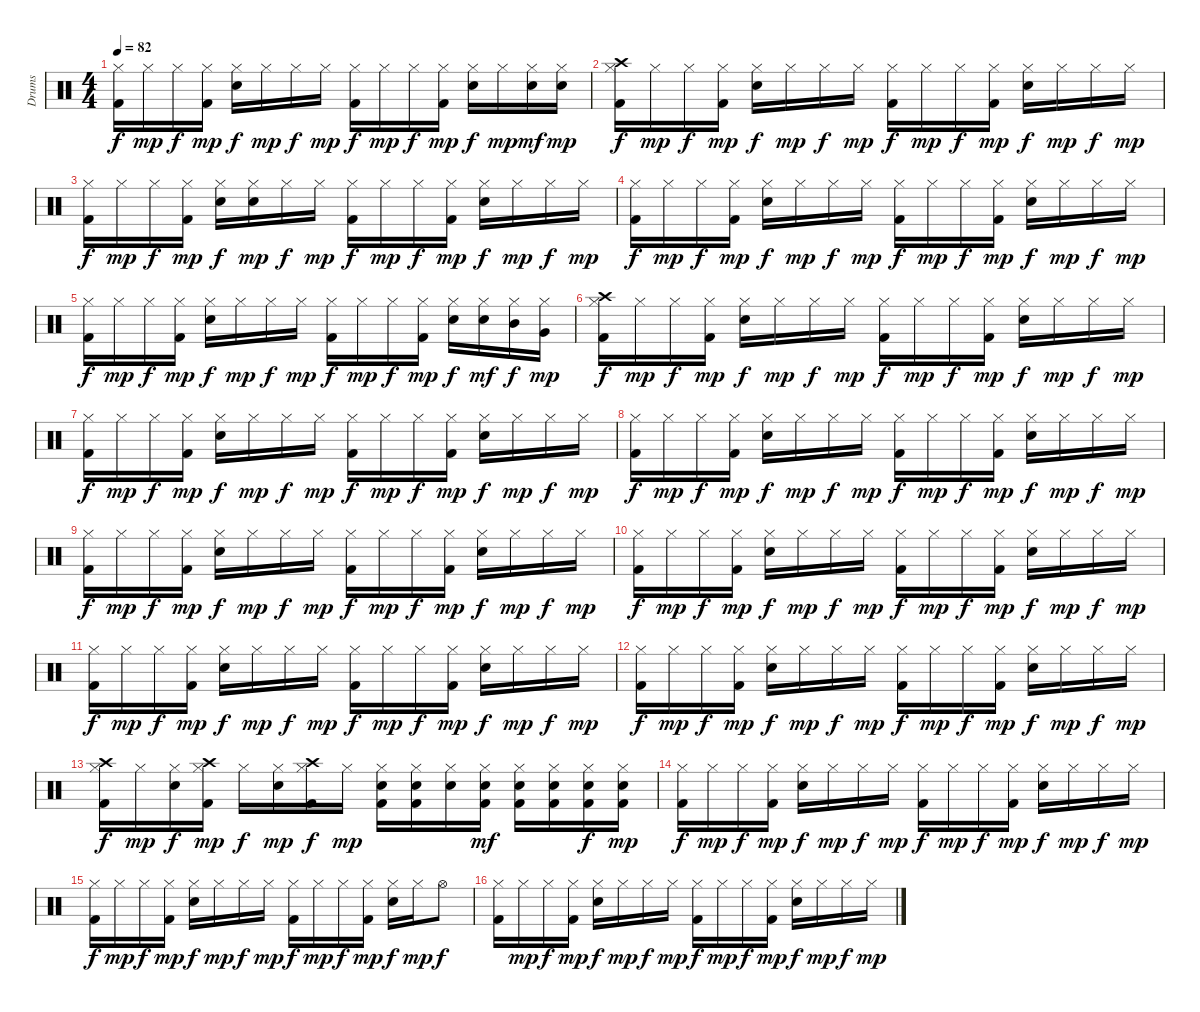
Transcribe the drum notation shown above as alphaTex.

\track ("Drums" "Drums") {instrument percussion}
\staff {score}
\articulation defaults
\ts (4 4)
\tempo 82
\clef neutral
\ks c
("Hi-Hat (closed)" "Kick (hit) 2").16{dy f} "Hi-Hat (closed)".16{dy mp} "Hi-Hat (closed)".16{dy f} ("Hi-Hat (closed)" "Kick (hit) 2").16{dy mp} ("Hi-Hat (closed)" "Snare (hit) 2").16{dy f} "Hi-Hat (closed)".16{dy mp} "Hi-Hat (closed)".16{dy f} "Hi-Hat (closed)".16{dy mp} ("Hi-Hat (closed)" "Kick (hit) 2").16{dy f} "Hi-Hat (closed)".16{dy mp} "Hi-Hat (closed)".16{dy f} ("Hi-Hat (closed)" "Kick (hit) 2").16{dy mp} ("Hi-Hat (closed)" "Snare (hit) 2").16{dy f} "Hi-Hat (closed)".16{dy mp} ("Hi-Hat (closed)" "Snare (hit) 2").16{dy mf} ("Hi-Hat (closed)" "Snare (hit) 2").16{dy mp} |
("Hi-Hat (closed)" "Crash high (hit)" "Kick (hit) 2").16{dy f} "Hi-Hat (closed)".16{dy mp} "Hi-Hat (closed)".16{dy f} ("Hi-Hat (closed)" "Kick (hit) 2").16{dy mp} ("Hi-Hat (closed)" "Snare (hit) 2").16{dy f} "Hi-Hat (closed)".16{dy mp} "Hi-Hat (closed)".16{dy f} "Hi-Hat (closed)".16{dy mp} ("Hi-Hat (closed)" "Kick (hit) 2").16{dy f} "Hi-Hat (closed)".16{dy mp} "Hi-Hat (closed)".16{dy f} ("Hi-Hat (closed)" "Kick (hit) 2").16{dy mp} ("Hi-Hat (closed)" "Snare (hit) 2").16{dy f} "Hi-Hat (closed)".16{dy mp} "Hi-Hat (closed)".16{dy f} "Hi-Hat (closed)".16{dy mp} |
("Hi-Hat (closed)" "Kick (hit) 2").16{dy f} "Hi-Hat (closed)".16{dy mp} "Hi-Hat (closed)".16{dy f} ("Hi-Hat (closed)" "Kick (hit) 2").16{dy mp} ("Hi-Hat (closed)" "Snare (hit) 2").16{dy f} ("Hi-Hat (closed)" "Snare (hit) 2").16{dy mp} "Hi-Hat (closed)".16{dy f} "Hi-Hat (closed)".16{dy mp} ("Hi-Hat (closed)" "Kick (hit) 2").16{dy f} "Hi-Hat (closed)".16{dy mp} "Hi-Hat (closed)".16{dy f} ("Hi-Hat (closed)" "Kick (hit) 2").16{dy mp} ("Hi-Hat (closed)" "Snare (hit) 2").16{dy f} "Hi-Hat (closed)".16{dy mp} "Hi-Hat (closed)".16{dy f} "Hi-Hat (closed)".16{dy mp} |
("Hi-Hat (closed)" "Kick (hit) 2").16{dy f} "Hi-Hat (closed)".16{dy mp} "Hi-Hat (closed)".16{dy f} ("Hi-Hat (closed)" "Kick (hit) 2").16{dy mp} ("Hi-Hat (closed)" "Snare (hit) 2").16{dy f} "Hi-Hat (closed)".16{dy mp} "Hi-Hat (closed)".16{dy f} "Hi-Hat (closed)".16{dy mp} ("Hi-Hat (closed)" "Kick (hit) 2").16{dy f} "Hi-Hat (closed)".16{dy mp} "Hi-Hat (closed)".16{dy f} ("Hi-Hat (closed)" "Kick (hit) 2").16{dy mp} ("Hi-Hat (closed)" "Snare (hit) 2").16{dy f} "Hi-Hat (closed)".16{dy mp} "Hi-Hat (closed)".16{dy f} "Hi-Hat (closed)".16{dy mp} |
("Hi-Hat (closed)" "Kick (hit) 2").16{dy f} "Hi-Hat (closed)".16{dy mp} "Hi-Hat (closed)".16{dy f} ("Hi-Hat (closed)" "Kick (hit) 2").16{dy mp} ("Hi-Hat (closed)" "Snare (hit) 2").16{dy f} "Hi-Hat (closed)".16{dy mp} "Hi-Hat (closed)".16{dy f} "Hi-Hat (closed)".16{dy mp} ("Hi-Hat (closed)" "Kick (hit) 2").16{dy f} "Hi-Hat (closed)".16{dy mp} "Hi-Hat (closed)".16{dy f} ("Hi-Hat (closed)" "Kick (hit) 2").16{dy mp} ("Hi-Hat (closed)" "Snare (hit) 2").16{dy f} ("Hi-Hat (closed)" "Snare (hit) 2").16{dy mf} ("Hi-Hat (closed)" "Mid Tom (hit)").16{dy f} ("Hi-Hat (closed)" "Very Low Tom (hit)").16{dy mp} |
("Hi-Hat (closed)" "Crash high (hit)" "Kick (hit) 2").16{dy f} "Hi-Hat (closed)".16{dy mp} "Hi-Hat (closed)".16{dy f} ("Hi-Hat (closed)" "Kick (hit) 2").16{dy mp} ("Hi-Hat (closed)" "Snare (hit) 2").16{dy f} "Hi-Hat (closed)".16{dy mp} "Hi-Hat (closed)".16{dy f} "Hi-Hat (closed)".16{dy mp} ("Hi-Hat (closed)" "Kick (hit) 2").16{dy f} "Hi-Hat (closed)".16{dy mp} "Hi-Hat (closed)".16{dy f} ("Hi-Hat (closed)" "Kick (hit) 2").16{dy mp} ("Hi-Hat (closed)" "Snare (hit) 2").16{dy f} "Hi-Hat (closed)".16{dy mp} "Hi-Hat (closed)".16{dy f} "Hi-Hat (closed)".16{dy mp} |
("Hi-Hat (closed)" "Kick (hit) 2").16{dy f} "Hi-Hat (closed)".16{dy mp} "Hi-Hat (closed)".16{dy f} ("Hi-Hat (closed)" "Kick (hit) 2").16{dy mp} ("Hi-Hat (closed)" "Snare (hit) 2").16{dy f} "Hi-Hat (closed)".16{dy mp} "Hi-Hat (closed)".16{dy f} "Hi-Hat (closed)".16{dy mp} ("Hi-Hat (closed)" "Kick (hit) 2").16{dy f} "Hi-Hat (closed)".16{dy mp} "Hi-Hat (closed)".16{dy f} ("Hi-Hat (closed)" "Kick (hit) 2").16{dy mp} ("Hi-Hat (closed)" "Snare (hit) 2").16{dy f} "Hi-Hat (closed)".16{dy mp} "Hi-Hat (closed)".16{dy f} "Hi-Hat (closed)".16{dy mp} |
("Hi-Hat (closed)" "Kick (hit) 2").16{dy f} "Hi-Hat (closed)".16{dy mp} "Hi-Hat (closed)".16{dy f} ("Hi-Hat (closed)" "Kick (hit) 2").16{dy mp} ("Hi-Hat (closed)" "Snare (hit) 2").16{dy f} "Hi-Hat (closed)".16{dy mp} "Hi-Hat (closed)".16{dy f} "Hi-Hat (closed)".16{dy mp} ("Hi-Hat (closed)" "Kick (hit) 2").16{dy f} "Hi-Hat (closed)".16{dy mp} "Hi-Hat (closed)".16{dy f} ("Hi-Hat (closed)" "Kick (hit) 2").16{dy mp} ("Hi-Hat (closed)" "Snare (hit) 2").16{dy f} "Hi-Hat (closed)".16{dy mp} "Hi-Hat (closed)".16{dy f} "Hi-Hat (closed)".16{dy mp} |
("Hi-Hat (closed)" "Kick (hit) 2").16{dy f} "Hi-Hat (closed)".16{dy mp} "Hi-Hat (closed)".16{dy f} ("Hi-Hat (closed)" "Kick (hit) 2").16{dy mp} ("Hi-Hat (closed)" "Snare (hit) 2").16{dy f} "Hi-Hat (closed)".16{dy mp} "Hi-Hat (closed)".16{dy f} "Hi-Hat (closed)".16{dy mp} ("Hi-Hat (closed)" "Kick (hit) 2").16{dy f} "Hi-Hat (closed)".16{dy mp} "Hi-Hat (closed)".16{dy f} ("Hi-Hat (closed)" "Kick (hit) 2").16{dy mp} ("Hi-Hat (closed)" "Snare (hit) 2").16{dy f} "Hi-Hat (closed)".16{dy mp} "Hi-Hat (closed)".16{dy f} "Hi-Hat (closed)".16{dy mp} |
("Hi-Hat (closed)" "Kick (hit) 2").16{dy f} "Hi-Hat (closed)".16{dy mp} "Hi-Hat (closed)".16{dy f} ("Hi-Hat (closed)" "Kick (hit) 2").16{dy mp} ("Hi-Hat (closed)" "Snare (hit) 2").16{dy f} "Hi-Hat (closed)".16{dy mp} "Hi-Hat (closed)".16{dy f} "Hi-Hat (closed)".16{dy mp} ("Hi-Hat (closed)" "Kick (hit) 2").16{dy f} "Hi-Hat (closed)".16{dy mp} "Hi-Hat (closed)".16{dy f} ("Hi-Hat (closed)" "Kick (hit) 2").16{dy mp} ("Hi-Hat (closed)" "Snare (hit) 2").16{dy f} "Hi-Hat (closed)".16{dy mp} "Hi-Hat (closed)".16{dy f} "Hi-Hat (closed)".16{dy mp} |
("Hi-Hat (closed)" "Kick (hit) 2").16{dy f} "Hi-Hat (closed)".16{dy mp} "Hi-Hat (closed)".16{dy f} ("Hi-Hat (closed)" "Kick (hit) 2").16{dy mp} ("Hi-Hat (closed)" "Snare (hit) 2").16{dy f} "Hi-Hat (closed)".16{dy mp} "Hi-Hat (closed)".16{dy f} "Hi-Hat (closed)".16{dy mp} ("Hi-Hat (closed)" "Kick (hit) 2").16{dy f} "Hi-Hat (closed)".16{dy mp} "Hi-Hat (closed)".16{dy f} ("Hi-Hat (closed)" "Kick (hit) 2").16{dy mp} ("Hi-Hat (closed)" "Snare (hit) 2").16{dy f} "Hi-Hat (closed)".16{dy mp} "Hi-Hat (closed)".16{dy f} "Hi-Hat (closed)".16{dy mp} |
("Hi-Hat (closed)" "Kick (hit) 2").16{dy f} "Hi-Hat (closed)".16{dy mp} "Hi-Hat (closed)".16{dy f} ("Hi-Hat (closed)" "Kick (hit) 2").16{dy mp} ("Hi-Hat (closed)" "Snare (hit) 2").16{dy f} "Hi-Hat (closed)".16{dy mp} "Hi-Hat (closed)".16{dy f} "Hi-Hat (closed)".16{dy mp} ("Hi-Hat (closed)" "Kick (hit) 2").16{dy f} "Hi-Hat (closed)".16{dy mp} "Hi-Hat (closed)".16{dy f} ("Hi-Hat (closed)" "Kick (hit) 2").16{dy mp} ("Hi-Hat (closed)" "Snare (hit) 2").16{dy f} "Hi-Hat (closed)".16{dy mp} "Hi-Hat (closed)".16{dy f} "Hi-Hat (closed)".16{dy mp} |
("Hi-Hat (closed)" "Crash high (hit)" "Kick (hit) 2").16{dy f} "Hi-Hat (closed)".16{dy mp} ("Hi-Hat (closed)" "Snare (hit) 2").16{dy f} ("Hi-Hat (closed)" "Crash high (hit)" "Kick (hit) 2").16{dy mp} "Hi-Hat (closed)".16{dy f} ("Hi-Hat (closed)" "Snare (hit) 2").16{dy mp} ("Hi-Hat (closed)" "Crash high (hit)" "Kick (hit) 2").16{dy f} "Hi-Hat (closed)".16{dy mp} ("Hi-Hat (closed)" "Snare (hit) 2" "Kick (hit) 2").16 ("Hi-Hat (closed)" "Snare (hit) 2" "Kick (hit) 2").16 ("Hi-Hat (closed)" "Snare (hit) 2").16 ("Hi-Hat (closed)" "Snare (hit) 2" "Kick (hit) 2").16{dy mf} ("Hi-Hat (closed)" "Snare (hit) 2" "Kick (hit) 2").16 ("Hi-Hat (closed)" "Snare (hit) 2" "Kick (hit) 2").16 ("Hi-Hat (closed)" "Snare (hit) 2" "Kick (hit) 2").16{dy f} ("Hi-Hat (closed)" "Snare (hit) 2" "Kick (hit) 2").16{dy mp} |
("Hi-Hat (closed)" "Kick (hit) 2").16{dy f} "Hi-Hat (closed)".16{dy mp} "Hi-Hat (closed)".16{dy f} ("Hi-Hat (closed)" "Kick (hit) 2").16{dy mp} ("Hi-Hat (closed)" "Snare (hit) 2").16{dy f} "Hi-Hat (closed)".16{dy mp} "Hi-Hat (closed)".16{dy f} "Hi-Hat (closed)".16{dy mp} ("Hi-Hat (closed)" "Kick (hit) 2").16{dy f} "Hi-Hat (closed)".16{dy mp} "Hi-Hat (closed)".16{dy f} ("Hi-Hat (closed)" "Kick (hit) 2").16{dy mp} ("Hi-Hat (closed)" "Snare (hit) 2").16{dy f} "Hi-Hat (closed)".16{dy mp} "Hi-Hat (closed)".16{dy f} "Hi-Hat (closed)".16{dy mp} |
("Hi-Hat (closed)" "Kick (hit) 2").16{dy f} "Hi-Hat (closed)".16{dy mp} "Hi-Hat (closed)".16{dy f} ("Hi-Hat (closed)" "Kick (hit) 2").16{dy mp} ("Hi-Hat (closed)" "Snare (hit) 2").16{dy f} "Hi-Hat (closed)".16{dy mp} "Hi-Hat (closed)".16{dy f} "Hi-Hat (closed)".16{dy mp} ("Hi-Hat (closed)" "Kick (hit) 2").16{dy f} "Hi-Hat (closed)".16{dy mp} "Hi-Hat (closed)".16{dy f} ("Hi-Hat (closed)" "Kick (hit) 2").16{dy mp} ("Hi-Hat (closed)" "Snare (hit) 2").16{dy f} "Hi-Hat (closed)".16{dy mp} "Hi-Hat (open)".8{dy f} |
("Hi-Hat (closed)" "Kick (hit) 2").16 "Hi-Hat (closed)".16{dy mp} "Hi-Hat (closed)".16{dy f} ("Hi-Hat (closed)" "Kick (hit) 2").16{dy mp} ("Hi-Hat (closed)" "Snare (hit) 2").16{dy f} "Hi-Hat (closed)".16{dy mp} "Hi-Hat (closed)".16{dy f} "Hi-Hat (closed)".16{dy mp} ("Hi-Hat (closed)" "Kick (hit) 2").16{dy f} "Hi-Hat (closed)".16{dy mp} "Hi-Hat (closed)".16{dy f} ("Hi-Hat (closed)" "Kick (hit) 2").16{dy mp} ("Hi-Hat (closed)" "Snare (hit) 2").16{dy f} "Hi-Hat (closed)".16{dy mp} "Hi-Hat (closed)".16{dy f} "Hi-Hat (closed)".16{dy mp}
